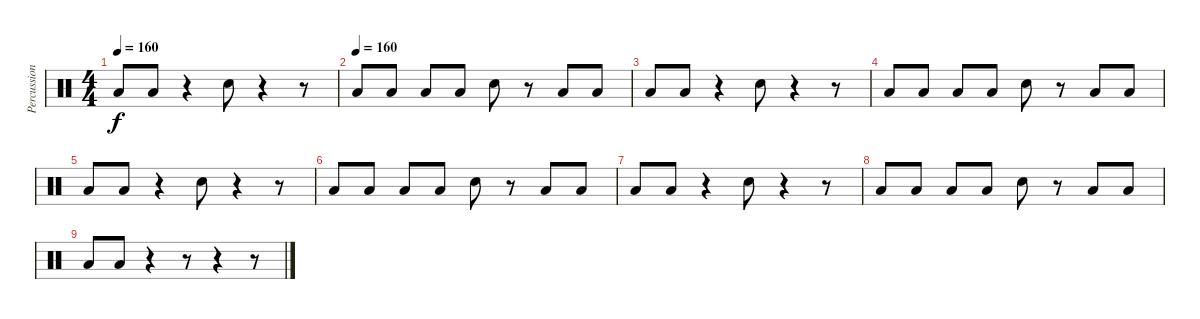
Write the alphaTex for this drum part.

\track ("Percussion" "Percussion") {instrument percussion}
\staff {score}
\articulation defaults
\ts (4 4)
\tempo 160
\clef neutral
\ks c "Low Floor Tom (hit)".8{dy f} "Low Floor Tom (hit)".8
r.4 "Electric Snare (hit)".8 r.4 r.8 |
\tempo (160)
"Low Floor Tom (hit)".8 "Low Floor Tom (hit)".8 "Low Floor Tom (hit)".8 "Low Floor Tom (hit)".8 "Electric Snare (hit)".8 r.8 "Low Floor Tom (hit)".8 "Low Floor Tom (hit)".8 |
"Low Floor Tom (hit)".8 "Low Floor Tom (hit)".8 r.4 "Electric Snare (hit)".8 r.4 r.8 |
"Low Floor Tom (hit)".8 "Low Floor Tom (hit)".8 "Low Floor Tom (hit)".8 "Low Floor Tom (hit)".8 "Electric Snare (hit)".8 r.8 "Low Floor Tom (hit)".8 "Low Floor Tom (hit)".8 |
"Low Floor Tom (hit)".8 "Low Floor Tom (hit)".8 r.4 "Electric Snare (hit)".8 r.4 r.8 |
"Low Floor Tom (hit)".8 "Low Floor Tom (hit)".8 "Low Floor Tom (hit)".8 "Low Floor Tom (hit)".8 "Electric Snare (hit)".8 r.8 "Low Floor Tom (hit)".8 "Low Floor Tom (hit)".8 |
"Low Floor Tom (hit)".8 "Low Floor Tom (hit)".8 r.4 "Electric Snare (hit)".8 r.4 r.8 |
"Low Floor Tom (hit)".8 "Low Floor Tom (hit)".8 "Low Floor Tom (hit)".8 "Low Floor Tom (hit)".8 "Electric Snare (hit)".8 r.8 "Low Floor Tom (hit)".8 "Low Floor Tom (hit)".8 |
"Low Floor Tom (hit)".8 "Low Floor Tom (hit)".8 r.4 r.8 r.4 r.8
